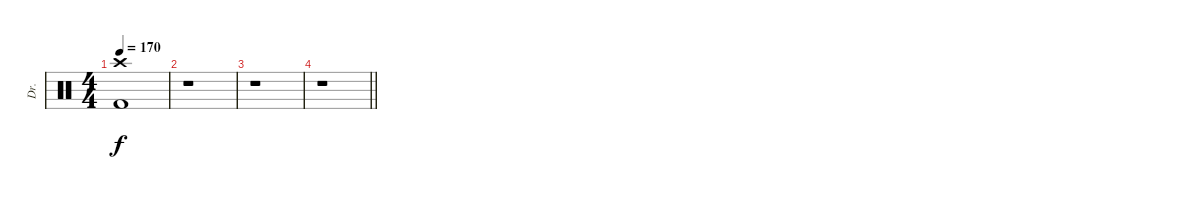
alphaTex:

\track ("Dr." "Dr.") {instrument percussion}
\staff {score}
\articulation defaults
\ts (4 4)
\tempo 170
\clef neutral
\ks c
("Crash high (hit)" "Kick (hit) 2").1{dy f} |
r.1 |
r.1 |
\barLineRight lightlight
r.1
